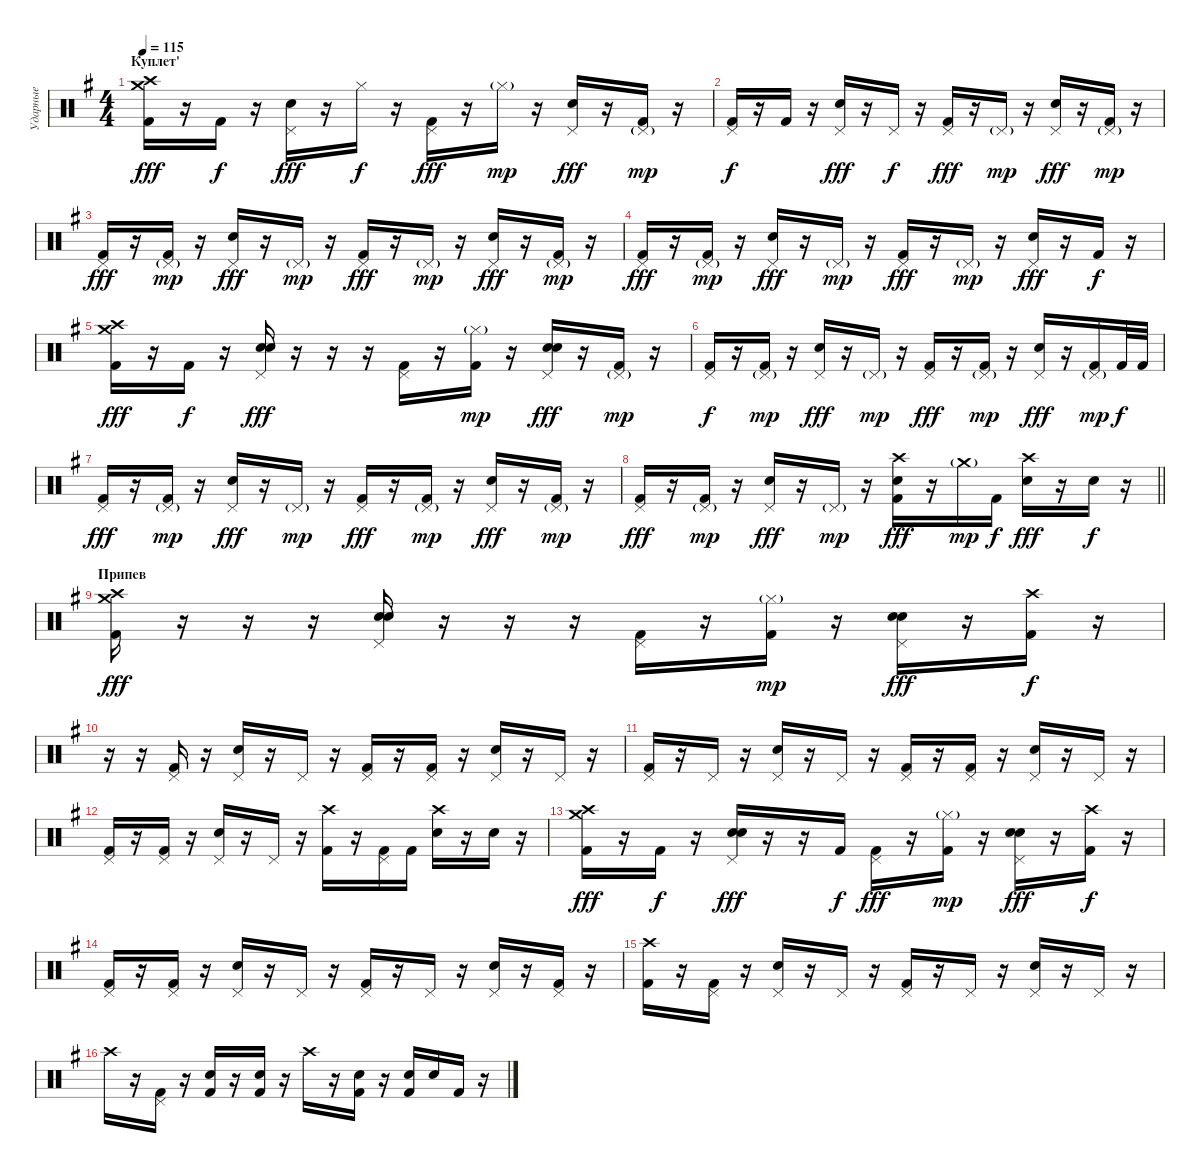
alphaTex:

\track ("Ударные" "Ударные") {instrument percussion}
\staff {score}
\articulation defaults
\ts (4 4)
\section ("" "Куплет'")
\tempo 115
\clef neutral
\ks g
("Crash high (hit)" "Crash medium (hit)" "Kick (hit) 2").16{dy fff volume 14 balance 8} r.16 "Kick (hit) 2".16{dy f} r.16 ("Pedal Hi-Hat (hit)" "Electric Snare (hit)").16{dy fff} r.16 "Hi-Hat (closed)".16{dy f} r.16 ("Pedal Hi-Hat (hit)" "Kick (hit) 2").16{dy fff} r.16 "Hi-Hat (closed)"{g}.16{dy mp} r.16 ("Pedal Hi-Hat (hit)" "Electric Snare (hit)").16{dy fff} r.16 ("Pedal Hi-Hat (hit)"{g} "Kick (hit) 2").16{dy mp} r.16 |
("Pedal Hi-Hat (hit)" "Kick (hit) 2").16{dy f} r.16 "Kick (hit) 2".16 r.16 ("Pedal Hi-Hat (hit)" "Electric Snare (hit)").16{dy fff} r.16 "Pedal Hi-Hat (hit)".16{dy f} r.16 ("Pedal Hi-Hat (hit)" "Kick (hit) 2").16{dy fff} r.16 "Pedal Hi-Hat (hit)"{g}.16{dy mp} r.16 ("Pedal Hi-Hat (hit)" "Electric Snare (hit)").16{dy fff} r.16 ("Pedal Hi-Hat (hit)"{g} "Kick (hit) 2").16{dy mp} r.16 |
("Pedal Hi-Hat (hit)" "Kick (hit) 2").16{dy fff} r.16 ("Pedal Hi-Hat (hit)"{g} "Kick (hit) 2").16{dy mp} r.16 ("Pedal Hi-Hat (hit)" "Electric Snare (hit)").16{dy fff} r.16 "Pedal Hi-Hat (hit)"{g}.16{dy mp} r.16 ("Pedal Hi-Hat (hit)" "Kick (hit) 2").16{dy fff} r.16 "Pedal Hi-Hat (hit)"{g}.16{dy mp} r.16 ("Pedal Hi-Hat (hit)" "Electric Snare (hit)").16{dy fff} r.16 ("Pedal Hi-Hat (hit)"{g} "Kick (hit) 2").16{dy mp} r.16 |
("Pedal Hi-Hat (hit)" "Kick (hit) 2").16{dy fff} r.16 ("Pedal Hi-Hat (hit)"{g} "Kick (hit) 2").16{dy mp} r.16 ("Pedal Hi-Hat (hit)" "Electric Snare (hit)").16{dy fff} r.16 "Pedal Hi-Hat (hit)"{g}.16{dy mp} r.16 ("Pedal Hi-Hat (hit)" "Kick (hit) 2").16{dy fff} r.16 "Pedal Hi-Hat (hit)"{g}.16{dy mp} r.16 ("Pedal Hi-Hat (hit)" "Electric Snare (hit)").16{dy fff} r.16 "Kick (hit) 2".16{dy f} r.16 |
("Crash high (hit)" "Crash medium (hit)" "Kick (hit) 2").16{dy fff volume 16} r.16 "Kick (hit) 2".16{dy f} r.16 ("Pedal Hi-Hat (hit)" "Electric Snare (hit)" "Electric Snare (hit)").16{dy fff} r.16 r.16 r.16 ("Pedal Hi-Hat (hit)" "Kick (hit) 2").16 r.16 ("Hi-Hat (closed)"{g} "Kick (hit) 2").16{dy mp} r.16 ("Pedal Hi-Hat (hit)" "Electric Snare (hit)" "Electric Snare (hit)").16{dy fff} r.16 ("Pedal Hi-Hat (hit)"{g} "Kick (hit) 2").16{dy mp} r.16 |
("Pedal Hi-Hat (hit)" "Kick (hit) 2").16{dy f} r.16 ("Pedal Hi-Hat (hit)"{g} "Kick (hit) 2").16{dy mp} r.16 ("Pedal Hi-Hat (hit)" "Electric Snare (hit)").16{dy fff} r.16 "Pedal Hi-Hat (hit)"{g}.16{dy mp} r.16 ("Pedal Hi-Hat (hit)" "Kick (hit) 2").16{dy fff} r.16 ("Pedal Hi-Hat (hit)"{g} "Kick (hit) 2").16{dy mp} r.16 ("Pedal Hi-Hat (hit)" "Electric Snare (hit)").16{dy fff} r.16 ("Pedal Hi-Hat (hit)"{g} "Kick (hit) 2").16{dy mp} "Kick (hit) 2".32{dy f} "Kick (hit) 2".32 |
("Pedal Hi-Hat (hit)" "Kick (hit) 2").16{dy fff} r.16 ("Pedal Hi-Hat (hit)"{g} "Kick (hit) 2").16{dy mp} r.16 ("Pedal Hi-Hat (hit)" "Electric Snare (hit)").16{dy fff} r.16 "Pedal Hi-Hat (hit)"{g}.16{dy mp} r.16 ("Pedal Hi-Hat (hit)" "Kick (hit) 2").16{dy fff} r.16 ("Pedal Hi-Hat (hit)"{g} "Kick (hit) 2").16{dy mp} r.16 ("Pedal Hi-Hat (hit)" "Electric Snare (hit)").16{dy fff} r.16 ("Pedal Hi-Hat (hit)"{g} "Kick (hit) 2").16{dy mp} r.16 |
\barLineRight lightlight
("Pedal Hi-Hat (hit)" "Kick (hit) 2").16{dy fff} r.16 ("Pedal Hi-Hat (hit)"{g} "Kick (hit) 2").16{dy mp} r.16 ("Pedal Hi-Hat (hit)" "Electric Snare (hit)").16{dy fff} r.16 "Pedal Hi-Hat (hit)"{g}.16{dy mp} r.16 ("Crash high (hit)" "Electric Snare (hit)" "Kick (hit) 2").16{dy fff} r.16 "Crash medium (hit)"{g}.16{dy mp} "Kick (hit) 2".16{dy f} ("Crash high (hit)" "Electric Snare (hit)").16{dy fff} r.16 "Electric Snare (hit)".16{dy f} r.16 |
\section ("" "Припев")
("Crash high (hit)" "Crash medium (hit)" "Kick (hit) 2").16{dy fff volume 16} r.16 r.16 r.16 ("Pedal Hi-Hat (hit)" "Electric Snare (hit)" "Electric Snare (hit)").16 r.16 r.16 r.16 ("Pedal Hi-Hat (hit)" "Kick (hit) 2").16 r.16 ("Hi-Hat (closed)"{g} "Kick (hit) 2").16{dy mp} r.16 ("Pedal Hi-Hat (hit)" "Electric Snare (hit)" "Electric Snare (hit)").16{dy fff} r.16 ("Crash high (hit)" "Kick (hit) 2").16{dy f} r.16 |
r.16 r.16 ("Pedal Hi-Hat (hit)" "Kick (hit) 2").16 r.16 ("Pedal Hi-Hat (hit)" "Electric Snare (hit)").16 r.16 "Pedal Hi-Hat (hit)".16 r.16 ("Pedal Hi-Hat (hit)" "Kick (hit) 2").16 r.16 ("Pedal Hi-Hat (hit)" "Kick (hit) 2").16 r.16 ("Pedal Hi-Hat (hit)" "Electric Snare (hit)").16 r.16 "Pedal Hi-Hat (hit)".16 r.16 |
("Pedal Hi-Hat (hit)" "Kick (hit) 2").16 r.16 "Pedal Hi-Hat (hit)".16 r.16 ("Pedal Hi-Hat (hit)" "Electric Snare (hit)").16 r.16 "Pedal Hi-Hat (hit)".16 r.16 ("Pedal Hi-Hat (hit)" "Kick (hit) 2").16 r.16 ("Pedal Hi-Hat (hit)" "Kick (hit) 2").16 r.16 ("Pedal Hi-Hat (hit)" "Electric Snare (hit)").16 r.16 "Pedal Hi-Hat (hit)".16 r.16 |
("Pedal Hi-Hat (hit)" "Kick (hit) 2").16 r.16 ("Pedal Hi-Hat (hit)" "Kick (hit) 2").16 r.16 ("Pedal Hi-Hat (hit)" "Electric Snare (hit)").16 r.16 "Pedal Hi-Hat (hit)".16 r.16 ("Crash high (hit)" "Kick (hit) 2").16 r.16 ("Pedal Hi-Hat (hit)" "Kick (hit) 2").16 "Kick (hit) 2".16 ("Crash high (hit)" "Electric Snare (hit)").16 r.16 "Electric Snare (hit)".16 r.16 |
("Crash high (hit)" "Crash medium (hit)" "Kick (hit) 2").16{dy fff volume 16} r.16 "Kick (hit) 2".16{dy f} r.16 ("Pedal Hi-Hat (hit)" "Electric Snare (hit)" "Electric Snare (hit)").16{dy fff} r.16 r.16 "Kick (hit) 2".16{dy f} ("Pedal Hi-Hat (hit)" "Kick (hit) 2").16{dy fff} r.16 ("Hi-Hat (closed)"{g} "Kick (hit) 2").16{dy mp} r.16 ("Pedal Hi-Hat (hit)" "Electric Snare (hit)" "Electric Snare (hit)").16{dy fff} r.16 ("Crash high (hit)" "Kick (hit) 2").16{dy f} r.16 |
("Pedal Hi-Hat (hit)" "Kick (hit) 2").16 r.16 ("Pedal Hi-Hat (hit)" "Kick (hit) 2").16 r.16 ("Pedal Hi-Hat (hit)" "Electric Snare (hit)").16 r.16 "Pedal Hi-Hat (hit)".16 r.16 ("Pedal Hi-Hat (hit)" "Kick (hit) 2").16 r.16 "Pedal Hi-Hat (hit)".16 r.16 ("Pedal Hi-Hat (hit)" "Electric Snare (hit)").16 r.16 ("Pedal Hi-Hat (hit)" "Kick (hit) 2").16 r.16 |
("Crash high (hit)" "Kick (hit) 2").16 r.16 ("Pedal Hi-Hat (hit)" "Kick (hit) 2").16 r.16 ("Pedal Hi-Hat (hit)" "Electric Snare (hit)").16 r.16 "Pedal Hi-Hat (hit)".16 r.16 ("Pedal Hi-Hat (hit)" "Kick (hit) 2").16 r.16 "Pedal Hi-Hat (hit)".16 r.16 ("Pedal Hi-Hat (hit)" "Electric Snare (hit)").16 r.16 "Pedal Hi-Hat (hit)".16 r.16 |
"Crash high (hit)".16 r.16 ("Pedal Hi-Hat (hit)" "Kick (hit) 2").16 r.16 ("Electric Snare (hit)" "Kick (hit) 2").16 r.16 ("Electric Snare (hit)" "Kick (hit) 2").16 r.16 "Crash high (hit)".16 r.16 ("Electric Snare (hit)" "Kick (hit) 2").16 r.16 ("Electric Snare (hit)" "Kick (hit) 2").16 "Electric Snare (hit)".16 "Kick (hit) 2".16 r.16
